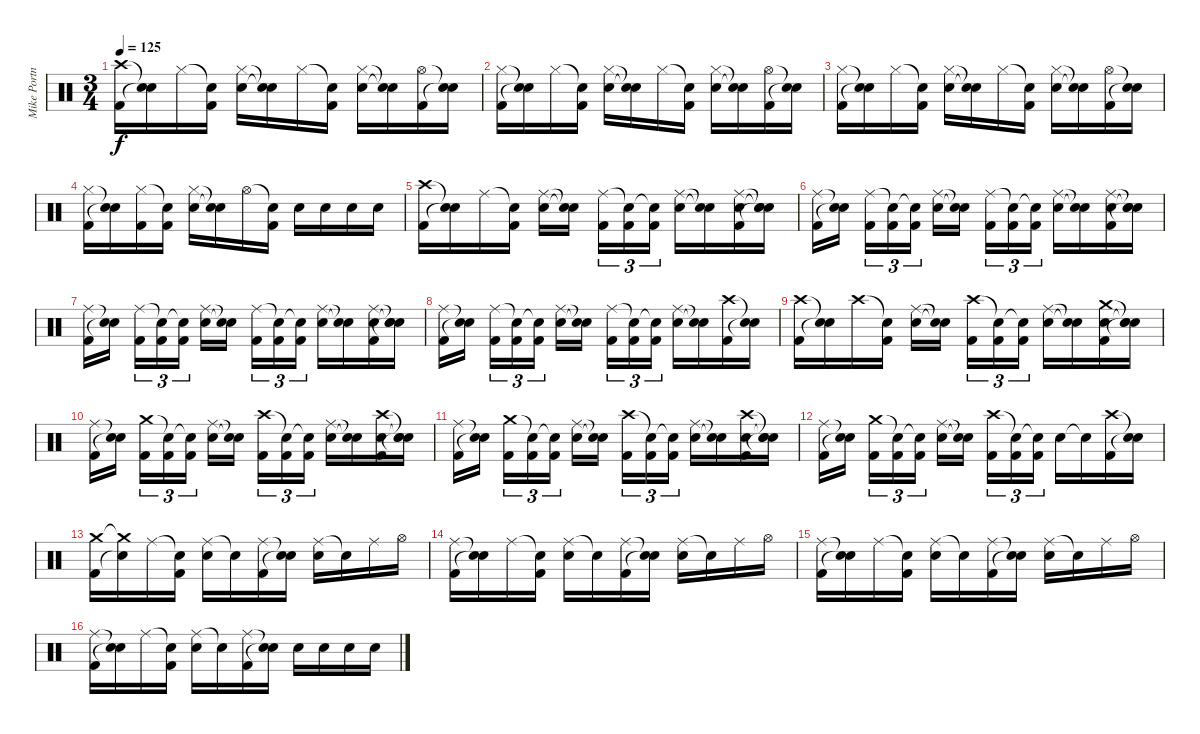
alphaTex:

\track ("Mike Portnoy Drums" "Mike Portn") {instrument percussion}
\staff {score}
\articulation defaults
\ts (3 4)
\tempo 125
\clef neutral
\ks c
("Crash high (hit)" "Kick (hit) 2").16{dy f} ("Snare (hit)"{t} "Snare (hit)"{t}).16 "Hi-Hat (closed)".16 ("Snare (hit)"{t} "Kick (hit) 2").16 ("Hi-Hat (closed)" "Snare (hit) 2").16 ("Snare (hit)"{t} "Snare (hit)"{t}).16 "Hi-Hat (closed)".16 ("Snare (hit)"{t} "Kick (hit) 2").16 ("Hi-Hat (closed)" "Snare (hit) 2").16 ("Snare (hit)"{t} "Snare (hit)"{t}).16 ("Hi-Hat (open)" "Kick (hit) 2").16 ("Snare (hit)"{t} "Snare (hit)"{t}).16 |
("Hi-Hat (closed)" "Kick (hit) 2").16 ("Snare (hit)"{t} "Snare (hit)"{t}).16 "Hi-Hat (closed)".16 ("Snare (hit)"{t} "Kick (hit) 2").16 ("Hi-Hat (closed)" "Snare (hit) 2").16 ("Snare (hit)"{t} "Snare (hit)"{t}).16 "Hi-Hat (closed)".16 ("Snare (hit)"{t} "Kick (hit) 2").16 ("Hi-Hat (closed)" "Snare (hit) 2").16 ("Snare (hit)"{t} "Snare (hit)"{t}).16 ("Hi-Hat (open)" "Kick (hit) 2").16 ("Snare (hit)"{t} "Snare (hit)"{t}).16 |
("Hi-Hat (closed)" "Kick (hit) 2").16 ("Snare (hit)"{t} "Snare (hit)"{t}).16 "Hi-Hat (closed)".16 ("Snare (hit)"{t} "Kick (hit) 2").16 ("Hi-Hat (closed)" "Snare (hit) 2").16 ("Snare (hit)"{t} "Snare (hit)"{t}).16 "Hi-Hat (closed)".16 ("Snare (hit)"{t} "Kick (hit) 2").16 ("Hi-Hat (closed)" "Snare (hit) 2").16 ("Snare (hit)"{t} "Snare (hit)"{t}).16 ("Hi-Hat (open)" "Kick (hit) 2").16 ("Snare (hit)"{t} "Snare (hit)"{t}).16 |
("Hi-Hat (closed)" "Kick (hit) 2").16 ("Snare (hit)"{t} "Snare (hit)"{t}).16 ("Hi-Hat (closed)" "Kick (hit) 2").16 ("Snare (hit)"{t} "Kick (hit) 2").16 ("Hi-Hat (closed)" "Snare (hit) 2").16 ("Snare (hit)"{t} "Snare (hit)"{t}).16 "Hi-Hat (open)".16 ("Snare (hit)"{t} "Kick (hit) 2").16 "Snare (hit) 2".16 "Snare (hit) 2".16 "Snare (hit) 2".16 "Snare (hit) 2".16 |
("Crash high (hit)" "Kick (hit) 2").16 ("Snare (hit)"{t} "Snare (hit)"{t}).16 "Ride (middle)".16 ("Snare (hit)"{t} "Kick (hit) 2").16 ("Ride (middle)" "Snare (hit) 2").16 ("Snare (hit)"{t} "Snare (hit)"{t}).16 ("Ride (middle)" "Kick (hit) 2").16{tu (3 2)} ("Snare (hit)"{t} "Kick (hit) 2").16{tu (3 2)} ("Snare (hit)"{t} "Kick (hit) 2").16{tu (3 2)} ("Ride (middle)" "Snare (hit) 2").16 ("Snare (hit)"{t} "Snare (hit)"{t}).16 ("Ride (middle)" "Snare (hit) 2" "Kick (hit) 2").16 ("Snare (hit)"{t} "Snare (hit)"{t} "Snare (hit)"{t}).16 |
("Ride (middle)" "Kick (hit) 2").16 ("Snare (hit)"{t} "Snare (hit)"{t}).16 ("Ride (middle)" "Kick (hit) 2").16{tu (3 2)} ("Snare (hit)"{t} "Kick (hit) 2").16{tu (3 2)} ("Snare (hit)"{t} "Kick (hit) 2").16{tu (3 2)} ("Ride (middle)" "Snare (hit) 2").16 ("Snare (hit)"{t} "Snare (hit)"{t}).16 ("Ride (middle)" "Kick (hit) 2").16{tu (3 2)} ("Snare (hit)"{t} "Kick (hit) 2").16{tu (3 2)} ("Snare (hit)"{t} "Kick (hit) 2").16{tu (3 2)} ("Ride (middle)" "Snare (hit) 2").16 ("Snare (hit)"{t} "Snare (hit)"{t}).16 ("Ride (middle)" "Snare (hit) 2" "Kick (hit) 2").16 ("Snare (hit)"{t} "Snare (hit)"{t} "Snare (hit)"{t}).16 |
("Ride (middle)" "Kick (hit) 2").16 ("Snare (hit)"{t} "Snare (hit)"{t}).16 ("Ride (middle)" "Kick (hit) 2").16{tu (3 2)} ("Snare (hit)"{t} "Kick (hit) 2").16{tu (3 2)} ("Snare (hit)"{t} "Kick (hit) 2").16{tu (3 2)} ("Ride (middle)" "Snare (hit) 2").16 ("Snare (hit)"{t} "Snare (hit)"{t}).16 ("Ride (middle)" "Kick (hit) 2").16{tu (3 2)} ("Snare (hit)"{t} "Kick (hit) 2").16{tu (3 2)} ("Snare (hit)"{t} "Kick (hit) 2").16{tu (3 2)} ("Ride (middle)" "Snare (hit) 2").16 ("Snare (hit)"{t} "Snare (hit)"{t}).16 ("Ride (middle)" "Snare (hit) 2" "Kick (hit) 2").16 ("Snare (hit)"{t} "Snare (hit)"{t} "Snare (hit)"{t}).16 |
("Ride (middle)" "Kick (hit) 2").16 ("Snare (hit)"{t} "Snare (hit)"{t}).16 ("Ride (middle)" "Kick (hit) 2").16{tu (3 2)} ("Snare (hit)"{t} "Kick (hit) 2").16{tu (3 2)} ("Snare (hit)"{t} "Kick (hit) 2").16{tu (3 2)} ("Ride (middle)" "Snare (hit) 2").16 ("Snare (hit)"{t} "Snare (hit)"{t}).16 ("Ride (middle)" "Kick (hit) 2").16{tu (3 2)} ("Snare (hit)"{t} "Kick (hit) 2").16{tu (3 2)} ("Snare (hit)"{t} "Kick (hit) 2").16{tu (3 2)} ("Ride (middle)" "Snare (hit) 2").16 ("Snare (hit)"{t} "Snare (hit)"{t}).16 ("Crash high (hit)" "Kick (hit) 2").16 ("Snare (hit)"{t} "Snare (hit)"{t}).16 |
("Crash high (hit)" "Kick (hit) 2").16 ("Snare (hit)"{t} "Snare (hit)"{t}).16 "Crash high (hit)".16 ("Snare (hit)"{t} "Kick (hit) 2").16 ("Ride (middle)" "Snare (hit) 2").16 ("Snare (hit)"{t} "Snare (hit)"{t}).16 ("Crash high (hit)" "Kick (hit) 2").16{tu (3 2)} ("Snare (hit)"{t} "Kick (hit) 2").16{tu (3 2)} ("Snare (hit)"{t} "Kick (hit) 2").16{tu (3 2)} ("Ride (middle)" "Snare (hit) 2").16 ("Snare (hit)"{t} "Snare (hit)"{t}).16 ("Crash medium (hit)" "Snare (hit) 2" "Kick (hit) 2").16 ("Snare (hit)"{t} "Snare (hit)"{t} "Snare (hit)"{t}).16 |
("Ride (middle)" "Kick (hit) 2").16 ("Snare (hit)"{t} "Snare (hit)"{t}).16 ("Crash medium (hit)" "Kick (hit) 2").16{tu (3 2)} ("Snare (hit)"{t} "Kick (hit) 2").16{tu (3 2)} ("Snare (hit)"{t} "Kick (hit) 2").16{tu (3 2)} ("Ride (middle)" "Snare (hit) 2").16 ("Snare (hit)"{t} "Snare (hit)"{t}).16 ("Crash high (hit)" "Kick (hit) 2").16{tu (3 2)} ("Snare (hit)"{t} "Kick (hit) 2").16{tu (3 2)} ("Snare (hit)"{t} "Kick (hit) 2").16{tu (3 2)} ("Ride (middle)" "Snare (hit) 2").16 ("Snare (hit)"{t} "Snare (hit)"{t}).16 ("Crash high (hit)" "Snare (hit) 2" "Kick (hit) 2").16 ("Snare (hit)"{t} "Snare (hit)"{t} "Snare (hit)"{t}).16 |
("Ride (middle)" "Kick (hit) 2").16 ("Snare (hit)"{t} "Snare (hit)"{t}).16 ("Crash medium (hit)" "Kick (hit) 2").16{tu (3 2)} ("Snare (hit)"{t} "Kick (hit) 2").16{tu (3 2)} ("Snare (hit)"{t} "Kick (hit) 2").16{tu (3 2)} ("Ride (middle)" "Snare (hit) 2").16 ("Snare (hit)"{t} "Snare (hit)"{t}).16 ("Crash high (hit)" "Kick (hit) 2").16{tu (3 2)} ("Snare (hit)"{t} "Kick (hit) 2").16{tu (3 2)} ("Snare (hit)"{t} "Kick (hit) 2").16{tu (3 2)} ("Ride (middle)" "Snare (hit) 2").16 ("Snare (hit)"{t} "Snare (hit)"{t}).16 ("Crash high (hit)" "Snare (hit) 2" "Kick (hit) 2").16 ("Snare (hit)"{t} "Snare (hit)"{t} "Snare (hit)"{t}).16 |
("Ride (middle)" "Kick (hit) 2").16 ("Snare (hit)"{t} "Snare (hit)"{t}).16 ("Crash medium (hit)" "Kick (hit) 2").16{tu (3 2)} ("Snare (hit)"{t} "Kick (hit) 2").16{tu (3 2)} ("Snare (hit)"{t} "Kick (hit) 2").16{tu (3 2)} ("Ride (middle)" "Snare (hit) 2").16 ("Snare (hit)"{t} "Snare (hit)"{t}).16 ("Crash high (hit)" "Kick (hit) 2").16{tu (3 2)} ("Snare (hit)"{t} "Kick (hit) 2").16{tu (3 2)} ("Snare (hit)"{t} "Kick (hit) 2").16{tu (3 2)} "Snare (hit) 2".16 "Snare (hit)"{t}.16 ("Crash high (hit)" "Kick (hit) 2").16 ("Snare (hit)"{t} "Snare (hit)"{t}).16 |
("Crash medium (hit)" "Kick (hit) 2").16 ("Crash medium (hit)"{t} "Snare (hit)"{t}).16 "Ride (middle)".16 ("Snare (hit)"{t} "Kick (hit) 2").16 ("Ride (middle)" "Snare (hit) 2").16 "Snare (hit)"{t}.16 ("Ride (middle)" "Kick (hit) 2").16 ("Snare (hit)"{t} "Snare (hit)"{t}).16 ("Ride (middle)" "Snare (hit) 2").16 "Snare (hit)"{t}.16 "Ride (middle)".16 "Hi-Hat (open)".16 |
("Ride (middle)" "Kick (hit) 2").16 ("Snare (hit)"{t} "Snare (hit)"{t}).16 "Ride (middle)".16 ("Snare (hit)"{t} "Kick (hit) 2").16 ("Ride (middle)" "Snare (hit) 2").16 "Snare (hit)"{t}.16 ("Ride (middle)" "Kick (hit) 2").16 ("Snare (hit)"{t} "Snare (hit)"{t}).16 ("Ride (middle)" "Snare (hit) 2").16 "Snare (hit)"{t}.16 "Ride (middle)".16 "Hi-Hat (open)".16 |
("Ride (middle)" "Kick (hit) 2").16 ("Snare (hit)"{t} "Snare (hit)"{t}).16 "Ride (middle)".16 ("Snare (hit)"{t} "Kick (hit) 2").16 ("Ride (middle)" "Snare (hit) 2").16 "Snare (hit)"{t}.16 ("Ride (middle)" "Kick (hit) 2").16 ("Snare (hit)"{t} "Snare (hit)"{t}).16 ("Ride (middle)" "Snare (hit) 2").16 "Snare (hit)"{t}.16 "Ride (middle)".16 "Hi-Hat (open)".16 |
("Ride (middle)" "Kick (hit) 2").16 ("Snare (hit)"{t} "Snare (hit)"{t}).16 "Ride (middle)".16 ("Snare (hit)"{t} "Kick (hit) 2").16 ("Ride (middle)" "Snare (hit) 2").16 "Snare (hit)"{t}.16 ("Ride (middle)" "Kick (hit) 2").16 ("Snare (hit)"{t} "Snare (hit)"{t}).16 "Snare (hit) 2".16 "Snare (hit) 2".16 "Snare (hit) 2".16 "Snare (hit) 2".16
